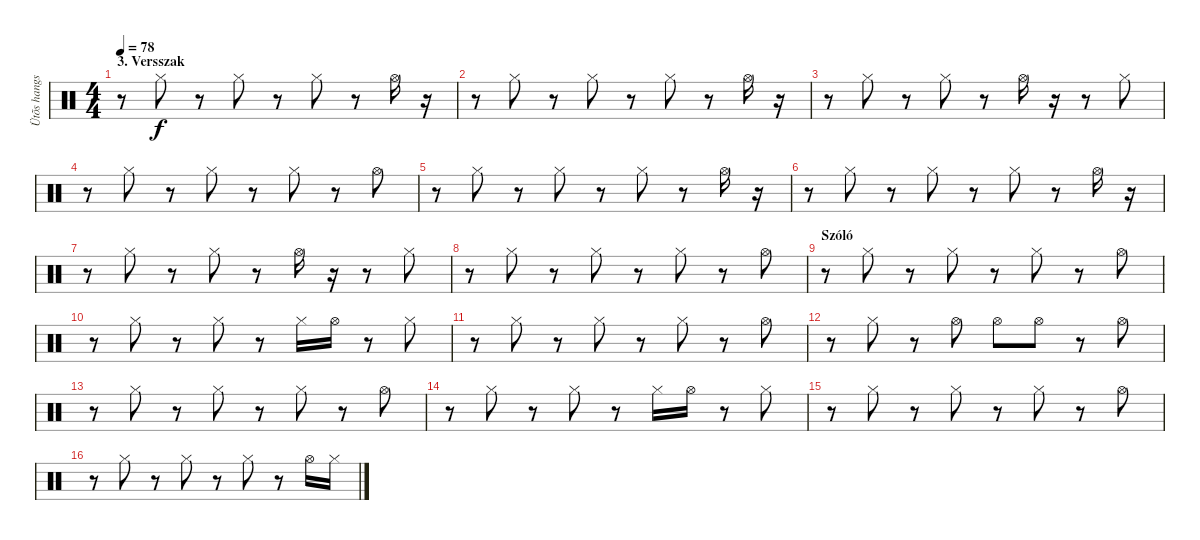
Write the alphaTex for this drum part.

\track ("Ütõs hangszer" "Ütõs hangs") {instrument percussion}
\staff {score}
\articulation defaults
\ts (4 4)
\section ("" "3. Versszak")
\tempo 78
\clef neutral
\ks c
r.8{dy f} "Hi-Hat (closed)".8 r.8 "Hi-Hat (closed)".8 r.8 "Hi-Hat (closed)".8 r.8 "Hi-Hat (open)".16 r.16 |
r.8 "Hi-Hat (closed)".8 r.8 "Hi-Hat (closed)".8 r.8 "Hi-Hat (closed)".8 r.8 "Hi-Hat (open)".16 r.16 |
r.8 "Hi-Hat (closed)".8 r.8 "Hi-Hat (closed)".8 r.8 "Hi-Hat (open)".16 r.16 r.8 "Hi-Hat (closed)".8 |
r.8 "Hi-Hat (closed)".8 r.8 "Hi-Hat (closed)".8 r.8 "Hi-Hat (closed)".8 r.8 "Hi-Hat (open)".8 |
r.8 "Hi-Hat (closed)".8 r.8 "Hi-Hat (closed)".8 r.8 "Hi-Hat (closed)".8 r.8 "Hi-Hat (open)".16 r.16 |
r.8 "Hi-Hat (closed)".8 r.8 "Hi-Hat (closed)".8 r.8 "Hi-Hat (closed)".8 r.8 "Hi-Hat (open)".16 r.16 |
r.8 "Hi-Hat (closed)".8 r.8 "Hi-Hat (closed)".8 r.8 "Hi-Hat (open)".16 r.16 r.8 "Hi-Hat (closed)".8 |
r.8 "Hi-Hat (closed)".8 r.8 "Hi-Hat (closed)".8 r.8 "Hi-Hat (closed)".8 r.8 "Hi-Hat (open)".8 |
\section ("" "Szóló")
r.8 "Hi-Hat (closed)".8 r.8 "Hi-Hat (closed)".8 r.8 "Hi-Hat (closed)".8 r.8 "Hi-Hat (open)".8 |
r.8 "Hi-Hat (closed)".8 r.8 "Hi-Hat (closed)".8 r.8 "Hi-Hat (closed)".16 "Hi-Hat (open)".16 r.8 "Hi-Hat (closed)".8 |
r.8 "Hi-Hat (closed)".8 r.8 "Hi-Hat (closed)".8 r.8 "Hi-Hat (closed)".8 r.8 "Hi-Hat (open)".8 |
r.8 "Hi-Hat (closed)".8 r.8 "Hi-Hat (open)".8 "Hi-Hat (open)".8 "Hi-Hat (open)".8 r.8 "Hi-Hat (open)".8 |
r.8 "Hi-Hat (closed)".8 r.8 "Hi-Hat (closed)".8 r.8 "Hi-Hat (closed)".8 r.8 "Hi-Hat (open)".8 |
r.8 "Hi-Hat (closed)".8 r.8 "Hi-Hat (closed)".8 r.8 "Hi-Hat (closed)".16 "Hi-Hat (open)".16 r.8 "Hi-Hat (closed)".8 |
r.8 "Hi-Hat (closed)".8 r.8 "Hi-Hat (closed)".8 r.8 "Hi-Hat (closed)".8 r.8 "Hi-Hat (open)".8 |
r.8 "Hi-Hat (closed)".8 r.8 "Hi-Hat (closed)".8 r.8 "Hi-Hat (closed)".8 r.8 "Hi-Hat (open)".16 "Hi-Hat (closed)".16
